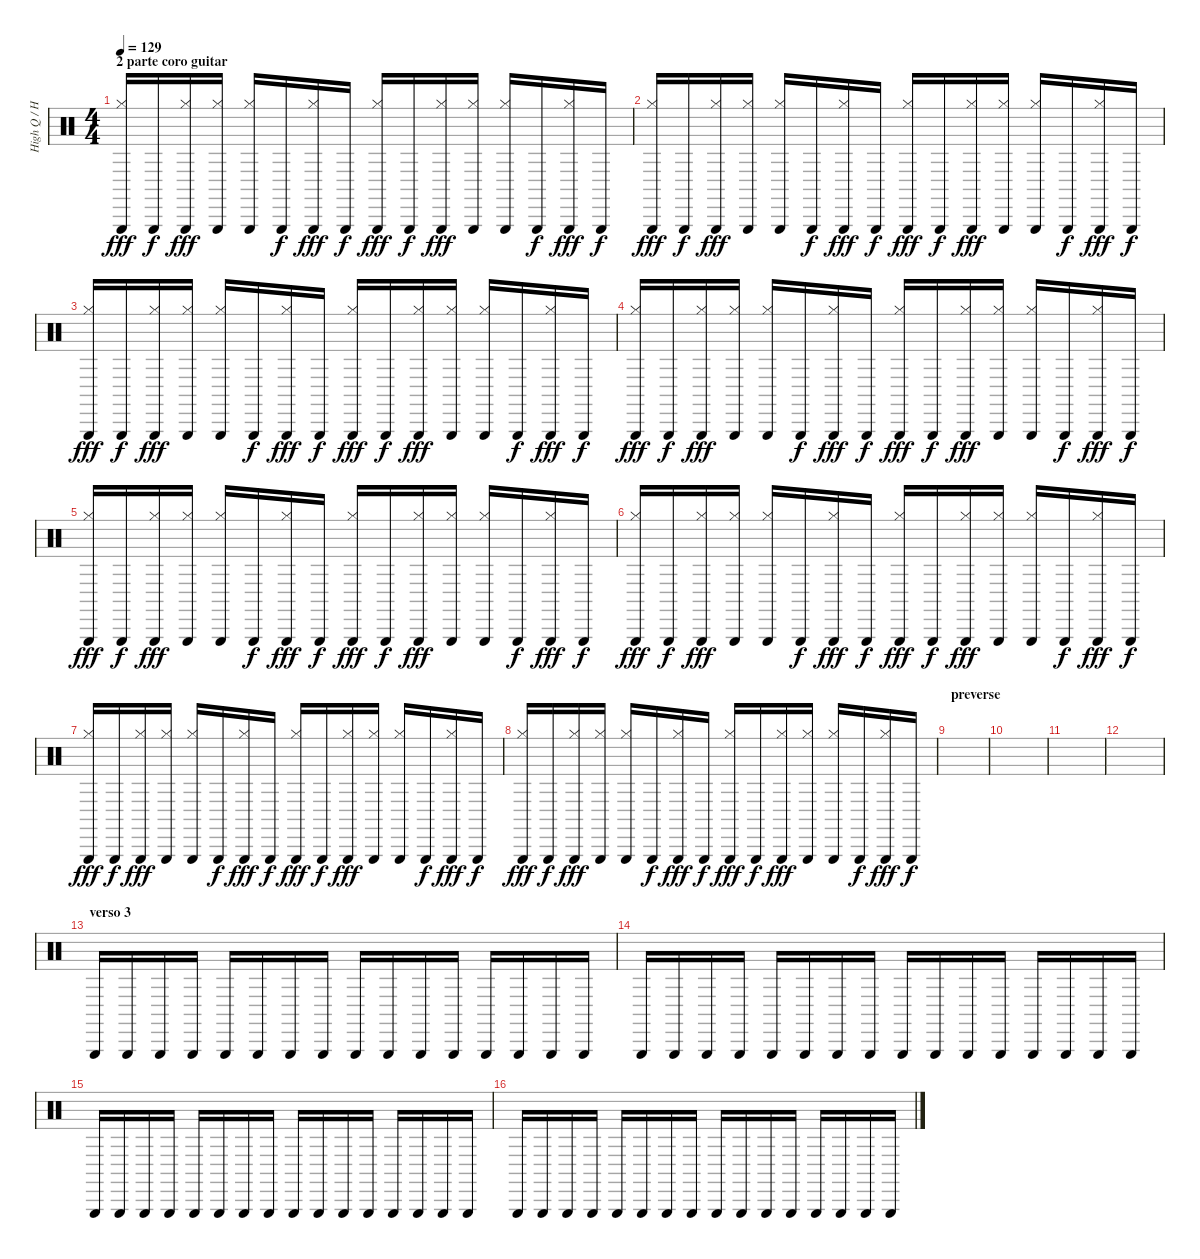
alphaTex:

\track ("High Q / Hats" "High Q / H") {instrument percussion}
\staff {score}
\articulation defaults
\ts (4 4)
\section ("" "2 parte coro guitar")
\tempo 129
\clef neutral
\ks c
("Triangle (hit)" "Hi-Hat (closed)").16{dy fff} "Triangle (hit)".16{dy f} ("Triangle (hit)" "Hi-Hat (closed)").16{dy fff} ("Triangle (hit)" "Hi-Hat (closed)").16 ("Triangle (hit)" "Hi-Hat (closed)").16 "Triangle (hit)".16{dy f} ("Triangle (hit)" "Hi-Hat (closed)").16{dy fff} "Triangle (hit)".16{dy f} ("Triangle (hit)" "Hi-Hat (closed)").16{dy fff} "Triangle (hit)".16{dy f} ("Triangle (hit)" "Hi-Hat (closed)").16{dy fff} ("Triangle (hit)" "Hi-Hat (closed)").16 ("Triangle (hit)" "Hi-Hat (closed)").16 "Triangle (hit)".16{dy f} ("Triangle (hit)" "Hi-Hat (closed)").16{dy fff} "Triangle (hit)".16{dy f} |
("Triangle (hit)" "Hi-Hat (closed)").16{dy fff} "Triangle (hit)".16{dy f} ("Triangle (hit)" "Hi-Hat (closed)").16{dy fff} ("Triangle (hit)" "Hi-Hat (closed)").16 ("Triangle (hit)" "Hi-Hat (closed)").16 "Triangle (hit)".16{dy f} ("Triangle (hit)" "Hi-Hat (closed)").16{dy fff} "Triangle (hit)".16{dy f} ("Triangle (hit)" "Hi-Hat (closed)").16{dy fff} "Triangle (hit)".16{dy f} ("Triangle (hit)" "Hi-Hat (closed)").16{dy fff} ("Triangle (hit)" "Hi-Hat (closed)").16 ("Triangle (hit)" "Hi-Hat (closed)").16 "Triangle (hit)".16{dy f} ("Triangle (hit)" "Hi-Hat (closed)").16{dy fff} "Triangle (hit)".16{dy f} |
("Triangle (hit)" "Hi-Hat (closed)").16{dy fff} "Triangle (hit)".16{dy f} ("Triangle (hit)" "Hi-Hat (closed)").16{dy fff} ("Triangle (hit)" "Hi-Hat (closed)").16 ("Triangle (hit)" "Hi-Hat (closed)").16 "Triangle (hit)".16{dy f} ("Triangle (hit)" "Hi-Hat (closed)").16{dy fff} "Triangle (hit)".16{dy f} ("Triangle (hit)" "Hi-Hat (closed)").16{dy fff} "Triangle (hit)".16{dy f} ("Triangle (hit)" "Hi-Hat (closed)").16{dy fff} ("Triangle (hit)" "Hi-Hat (closed)").16 ("Triangle (hit)" "Hi-Hat (closed)").16 "Triangle (hit)".16{dy f} ("Triangle (hit)" "Hi-Hat (closed)").16{dy fff} "Triangle (hit)".16{dy f} |
("Triangle (hit)" "Hi-Hat (closed)").16{dy fff} "Triangle (hit)".16{dy f} ("Triangle (hit)" "Hi-Hat (closed)").16{dy fff} ("Triangle (hit)" "Hi-Hat (closed)").16 ("Triangle (hit)" "Hi-Hat (closed)").16 "Triangle (hit)".16{dy f} ("Triangle (hit)" "Hi-Hat (closed)").16{dy fff} "Triangle (hit)".16{dy f} ("Triangle (hit)" "Hi-Hat (closed)").16{dy fff} "Triangle (hit)".16{dy f} ("Triangle (hit)" "Hi-Hat (closed)").16{dy fff} ("Triangle (hit)" "Hi-Hat (closed)").16 ("Triangle (hit)" "Hi-Hat (closed)").16 "Triangle (hit)".16{dy f} ("Triangle (hit)" "Hi-Hat (closed)").16{dy fff} "Triangle (hit)".16{dy f} |
("Triangle (hit)" "Hi-Hat (closed)").16{dy fff} "Triangle (hit)".16{dy f} ("Triangle (hit)" "Hi-Hat (closed)").16{dy fff} ("Triangle (hit)" "Hi-Hat (closed)").16 ("Triangle (hit)" "Hi-Hat (closed)").16 "Triangle (hit)".16{dy f} ("Triangle (hit)" "Hi-Hat (closed)").16{dy fff} "Triangle (hit)".16{dy f} ("Triangle (hit)" "Hi-Hat (closed)").16{dy fff} "Triangle (hit)".16{dy f} ("Triangle (hit)" "Hi-Hat (closed)").16{dy fff} ("Triangle (hit)" "Hi-Hat (closed)").16 ("Triangle (hit)" "Hi-Hat (closed)").16 "Triangle (hit)".16{dy f} ("Triangle (hit)" "Hi-Hat (closed)").16{dy fff} "Triangle (hit)".16{dy f} |
("Triangle (hit)" "Hi-Hat (closed)").16{dy fff} "Triangle (hit)".16{dy f} ("Triangle (hit)" "Hi-Hat (closed)").16{dy fff} ("Triangle (hit)" "Hi-Hat (closed)").16 ("Triangle (hit)" "Hi-Hat (closed)").16 "Triangle (hit)".16{dy f} ("Triangle (hit)" "Hi-Hat (closed)").16{dy fff} "Triangle (hit)".16{dy f} ("Triangle (hit)" "Hi-Hat (closed)").16{dy fff} "Triangle (hit)".16{dy f} ("Triangle (hit)" "Hi-Hat (closed)").16{dy fff} ("Triangle (hit)" "Hi-Hat (closed)").16 ("Triangle (hit)" "Hi-Hat (closed)").16 "Triangle (hit)".16{dy f} ("Triangle (hit)" "Hi-Hat (closed)").16{dy fff} "Triangle (hit)".16{dy f} |
("Triangle (hit)" "Hi-Hat (closed)").16{dy fff} "Triangle (hit)".16{dy f} ("Triangle (hit)" "Hi-Hat (closed)").16{dy fff} ("Triangle (hit)" "Hi-Hat (closed)").16 ("Triangle (hit)" "Hi-Hat (closed)").16 "Triangle (hit)".16{dy f} ("Triangle (hit)" "Hi-Hat (closed)").16{dy fff} "Triangle (hit)".16{dy f} ("Triangle (hit)" "Hi-Hat (closed)").16{dy fff} "Triangle (hit)".16{dy f} ("Triangle (hit)" "Hi-Hat (closed)").16{dy fff} ("Triangle (hit)" "Hi-Hat (closed)").16 ("Triangle (hit)" "Hi-Hat (closed)").16 "Triangle (hit)".16{dy f} ("Triangle (hit)" "Hi-Hat (closed)").16{dy fff} "Triangle (hit)".16{dy f} |
("Triangle (hit)" "Hi-Hat (closed)").16{dy fff} "Triangle (hit)".16{dy f} ("Triangle (hit)" "Hi-Hat (closed)").16{dy fff} ("Triangle (hit)" "Hi-Hat (closed)").16 ("Triangle (hit)" "Hi-Hat (closed)").16 "Triangle (hit)".16{dy f} ("Triangle (hit)" "Hi-Hat (closed)").16{dy fff} "Triangle (hit)".16{dy f} ("Triangle (hit)" "Hi-Hat (closed)").16{dy fff} "Triangle (hit)".16{dy f} ("Triangle (hit)" "Hi-Hat (closed)").16{dy fff} ("Triangle (hit)" "Hi-Hat (closed)").16 ("Triangle (hit)" "Hi-Hat (closed)").16 "Triangle (hit)".16{dy f} ("Triangle (hit)" "Hi-Hat (closed)").16{dy fff} "Triangle (hit)".16{dy f} |
\section ("" "preverse")
|
|
|
|
\section ("" "verso 3")
"Triangle (hit)".16 "Triangle (hit)".16 "Triangle (hit)".16 "Triangle (hit)".16 "Triangle (hit)".16 "Triangle (hit)".16 "Triangle (hit)".16 "Triangle (hit)".16 "Triangle (hit)".16 "Triangle (hit)".16 "Triangle (hit)".16 "Triangle (hit)".16 "Triangle (hit)".16 "Triangle (hit)".16 "Triangle (hit)".16 "Triangle (hit)".16 |
"Triangle (hit)".16 "Triangle (hit)".16 "Triangle (hit)".16 "Triangle (hit)".16 "Triangle (hit)".16 "Triangle (hit)".16 "Triangle (hit)".16 "Triangle (hit)".16 "Triangle (hit)".16 "Triangle (hit)".16 "Triangle (hit)".16 "Triangle (hit)".16 "Triangle (hit)".16 "Triangle (hit)".16 "Triangle (hit)".16 "Triangle (hit)".16 |
"Triangle (hit)".16 "Triangle (hit)".16 "Triangle (hit)".16 "Triangle (hit)".16 "Triangle (hit)".16 "Triangle (hit)".16 "Triangle (hit)".16 "Triangle (hit)".16 "Triangle (hit)".16 "Triangle (hit)".16 "Triangle (hit)".16 "Triangle (hit)".16 "Triangle (hit)".16 "Triangle (hit)".16 "Triangle (hit)".16 "Triangle (hit)".16 |
"Triangle (hit)".16 "Triangle (hit)".16 "Triangle (hit)".16 "Triangle (hit)".16 "Triangle (hit)".16 "Triangle (hit)".16 "Triangle (hit)".16 "Triangle (hit)".16 "Triangle (hit)".16 "Triangle (hit)".16 "Triangle (hit)".16 "Triangle (hit)".16 "Triangle (hit)".16 "Triangle (hit)".16 "Triangle (hit)".16 "Triangle (hit)".16
